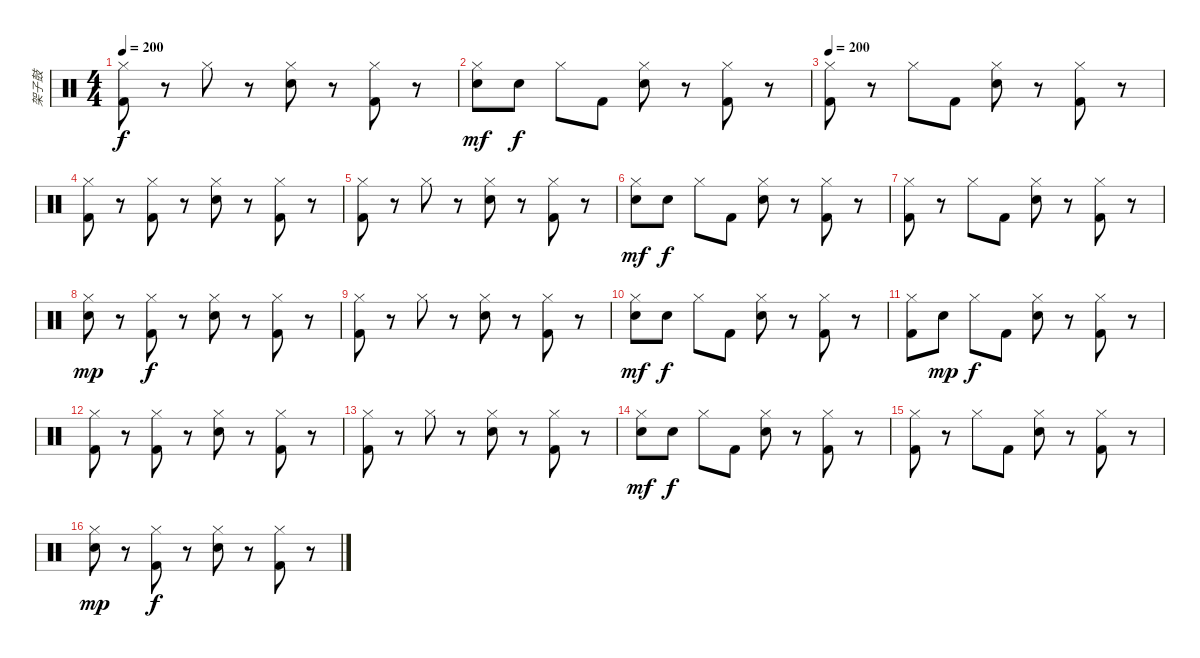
\track ("架子鼓" "架子鼓") {instrument percussion}
\staff {score}
\articulation defaults
\ts (4 4)
\tempo 200
\clef neutral
\ks c
("Kick (hit) 2" "Hi-Hat (closed)").8{dy f} r.8 "Hi-Hat (closed)".8 r.8 ("Snare (hit) 2" "Hi-Hat (closed)").8 r.8 ("Hi-Hat (closed)" "Kick (hit) 2").8 r.8 |
("Snare (hit) 2" "Hi-Hat (closed)").8{dy mf} "Snare (hit) 2".8{dy f} "Hi-Hat (closed)".8 "Kick (hit) 2".8 ("Snare (hit) 2" "Hi-Hat (closed)").8 r.8 ("Kick (hit) 2" "Hi-Hat (closed)").8 r.8 |
\tempo 200
("Kick (hit) 2" "Hi-Hat (closed)").8 r.8 "Hi-Hat (closed)".8 "Kick (hit) 2".8 ("Snare (hit) 2" "Hi-Hat (closed)").8 r.8 ("Hi-Hat (closed)" "Kick (hit) 2").8 r.8 |
("Kick (hit) 2" "Hi-Hat (closed)").8 r.8 ("Kick (hit) 2" "Hi-Hat (closed)").8 r.8 ("Snare (hit) 2" "Hi-Hat (closed)").8 r.8 ("Kick (hit) 2" "Hi-Hat (closed)").8 r.8 |
("Kick (hit) 2" "Hi-Hat (closed)").8 r.8 "Hi-Hat (closed)".8 r.8 ("Snare (hit) 2" "Hi-Hat (closed)").8 r.8 ("Hi-Hat (closed)" "Kick (hit) 2").8 r.8 |
("Snare (hit) 2" "Hi-Hat (closed)").8{dy mf} "Snare (hit) 2".8{dy f} "Hi-Hat (closed)".8 "Kick (hit) 2".8 ("Snare (hit) 2" "Hi-Hat (closed)").8 r.8 ("Kick (hit) 2" "Hi-Hat (closed)").8 r.8 |
("Kick (hit) 2" "Hi-Hat (closed)").8 r.8 "Hi-Hat (closed)".8 "Kick (hit) 2".8 ("Snare (hit) 2" "Hi-Hat (closed)").8 r.8 ("Hi-Hat (closed)" "Kick (hit) 2").8 r.8 |
("Snare (hit) 2" "Hi-Hat (closed)").8{dy mp} r.8 ("Kick (hit) 2" "Hi-Hat (closed)").8{dy f} r.8 ("Snare (hit) 2" "Hi-Hat (closed)").8 r.8 ("Kick (hit) 2" "Hi-Hat (closed)").8 r.8 |
("Kick (hit) 2" "Hi-Hat (closed)").8 r.8 "Hi-Hat (closed)".8 r.8 ("Snare (hit) 2" "Hi-Hat (closed)").8 r.8 ("Hi-Hat (closed)" "Kick (hit) 2").8 r.8 |
("Snare (hit) 2" "Hi-Hat (closed)").8{dy mf} "Snare (hit) 2".8{dy f} "Hi-Hat (closed)".8 "Kick (hit) 2".8 ("Snare (hit) 2" "Hi-Hat (closed)").8 r.8 ("Kick (hit) 2" "Hi-Hat (closed)").8 r.8 |
("Kick (hit) 2" "Hi-Hat (closed)").8 "Snare (hit) 2".8{dy mp} "Hi-Hat (closed)".8{dy f} "Kick (hit) 2".8 ("Snare (hit) 2" "Hi-Hat (closed)").8 r.8 ("Hi-Hat (closed)" "Kick (hit) 2").8 r.8 |
("Kick (hit) 2" "Hi-Hat (closed)").8 r.8 ("Kick (hit) 2" "Hi-Hat (closed)").8 r.8 ("Snare (hit) 2" "Hi-Hat (closed)").8 r.8 ("Kick (hit) 2" "Hi-Hat (closed)").8 r.8 |
("Kick (hit) 2" "Hi-Hat (closed)").8 r.8 "Hi-Hat (closed)".8 r.8 ("Snare (hit) 2" "Hi-Hat (closed)").8 r.8 ("Hi-Hat (closed)" "Kick (hit) 2").8 r.8 |
("Snare (hit) 2" "Hi-Hat (closed)").8{dy mf} "Snare (hit) 2".8{dy f} "Hi-Hat (closed)".8 "Kick (hit) 2".8 ("Snare (hit) 2" "Hi-Hat (closed)").8 r.8 ("Kick (hit) 2" "Hi-Hat (closed)").8 r.8 |
("Kick (hit) 2" "Hi-Hat (closed)").8 r.8 "Hi-Hat (closed)".8 "Kick (hit) 2".8 ("Snare (hit) 2" "Hi-Hat (closed)").8 r.8 ("Hi-Hat (closed)" "Kick (hit) 2").8 r.8 |
("Snare (hit) 2" "Hi-Hat (closed)").8{dy mp} r.8 ("Kick (hit) 2" "Hi-Hat (closed)").8{dy f} r.8 ("Snare (hit) 2" "Hi-Hat (closed)").8 r.8 ("Kick (hit) 2" "Hi-Hat (closed)").8 r.8
